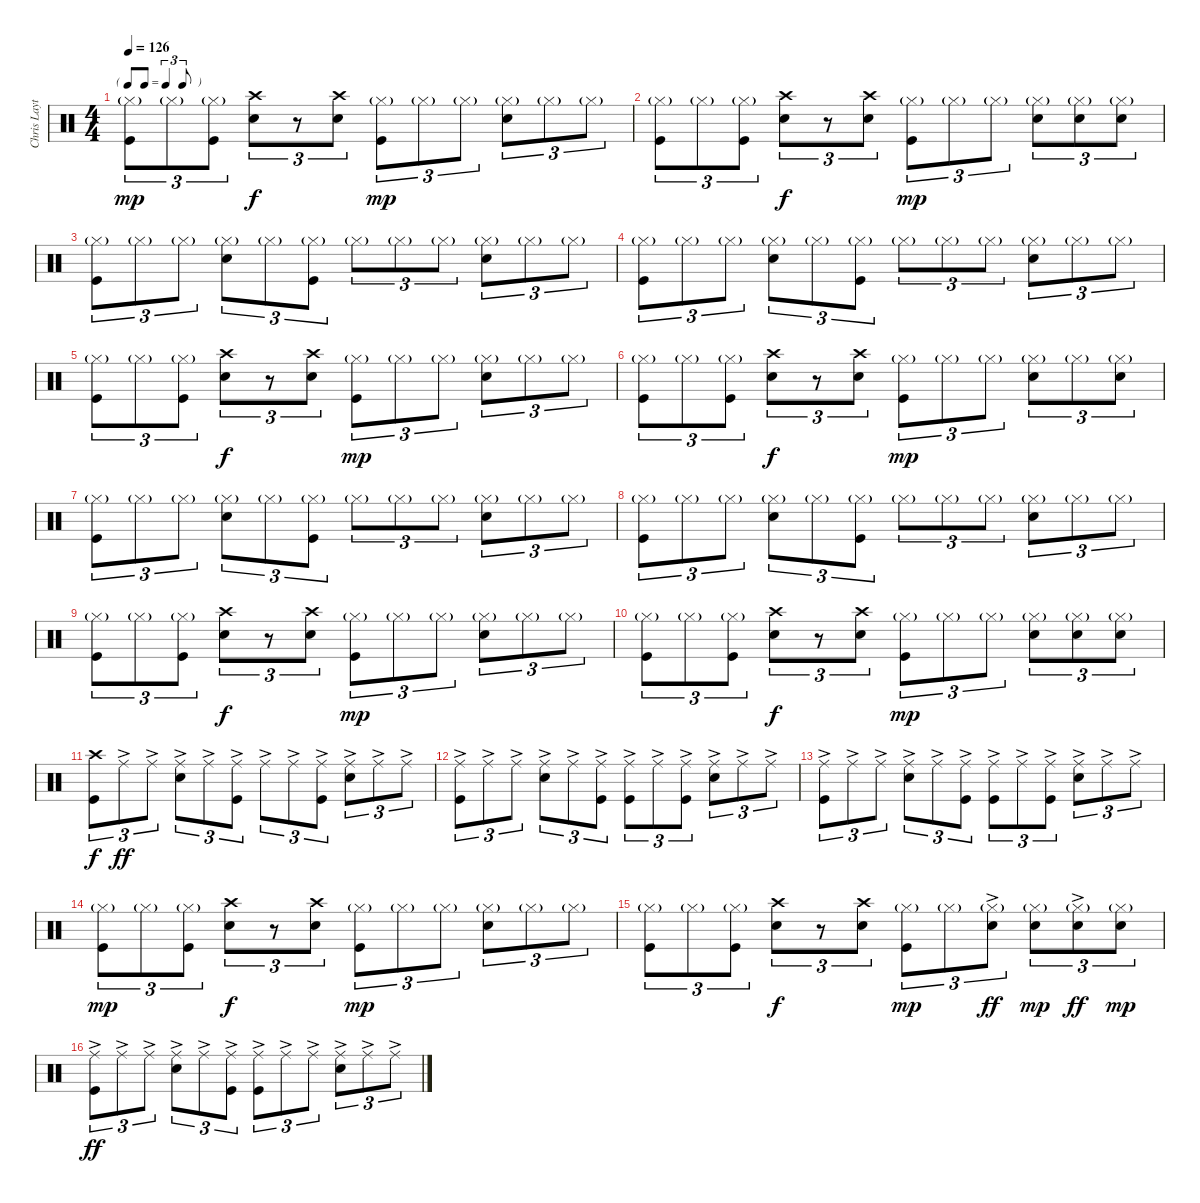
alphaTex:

\track ("Chris Layton" "Chris Layt") {instrument percussion}
\staff {score}
\articulation defaults
\ts (4 4)
\tf triplet8th
\tempo 126
\clef neutral
\ks c
("Hi-Hat (closed)"{g} "Kick (hit)").8{tu (3 2) dy mp} "Hi-Hat (closed)"{g}.8{tu (3 2)} ("Hi-Hat (closed)"{g} "Kick (hit)").8{tu (3 2)} ("Crash high (hit)" "Electric Snare (hit)").8{tu (3 2) dy f} r.8{tu (3 2)} ("Crash high (hit)" "Electric Snare (hit)").8{tu (3 2)} ("Hi-Hat (closed)"{g} "Kick (hit)").8{tu (3 2) dy mp} "Hi-Hat (closed)"{g}.8{tu (3 2)} "Hi-Hat (closed)"{g}.8{tu (3 2)} ("Hi-Hat (closed)"{g} "Electric Snare (hit)").8{tu (3 2)} "Hi-Hat (closed)"{g}.8{tu (3 2)} "Hi-Hat (closed)"{g}.8{tu (3 2)} |
("Hi-Hat (closed)"{g} "Kick (hit)").8{tu (3 2)} "Hi-Hat (closed)"{g}.8{tu (3 2)} ("Hi-Hat (closed)"{g} "Kick (hit)").8{tu (3 2)} ("Crash high (hit)" "Electric Snare (hit)").8{tu (3 2) dy f} r.8{tu (3 2)} ("Crash high (hit)" "Electric Snare (hit)").8{tu (3 2)} ("Hi-Hat (closed)"{g} "Kick (hit)").8{tu (3 2) dy mp} "Hi-Hat (closed)"{g}.8{tu (3 2)} "Hi-Hat (closed)"{g}.8{tu (3 2)} ("Hi-Hat (closed)"{g} "Electric Snare (hit)").8{tu (3 2)} ("Hi-Hat (closed)"{g} "Electric Snare (hit)").8{tu (3 2)} ("Hi-Hat (closed)"{g} "Electric Snare (hit)").8{tu (3 2)} |
("Hi-Hat (closed)"{g} "Kick (hit)").8{tu (3 2)} "Hi-Hat (closed)"{g}.8{tu (3 2)} "Hi-Hat (closed)"{g}.8{tu (3 2)} ("Hi-Hat (closed)"{g} "Electric Snare (hit)").8{tu (3 2)} "Hi-Hat (closed)"{g}.8{tu (3 2)} ("Hi-Hat (closed)"{g} "Kick (hit)").8{tu (3 2)} "Hi-Hat (closed)"{g}.8{tu (3 2)} "Hi-Hat (closed)"{g}.8{tu (3 2)} "Hi-Hat (closed)"{g}.8{tu (3 2)} ("Hi-Hat (closed)"{g} "Electric Snare (hit)").8{tu (3 2)} "Hi-Hat (closed)"{g}.8{tu (3 2)} "Hi-Hat (closed)"{g}.8{tu (3 2)} |
("Hi-Hat (closed)"{g} "Kick (hit)").8{tu (3 2)} "Hi-Hat (closed)"{g}.8{tu (3 2)} "Hi-Hat (closed)"{g}.8{tu (3 2)} ("Hi-Hat (closed)"{g} "Electric Snare (hit)").8{tu (3 2)} "Hi-Hat (closed)"{g}.8{tu (3 2)} ("Hi-Hat (closed)"{g} "Kick (hit)").8{tu (3 2)} "Hi-Hat (closed)"{g}.8{tu (3 2)} "Hi-Hat (closed)"{g}.8{tu (3 2)} "Hi-Hat (closed)"{g}.8{tu (3 2)} ("Hi-Hat (closed)"{g} "Electric Snare (hit)").8{tu (3 2)} "Hi-Hat (closed)"{g}.8{tu (3 2)} "Hi-Hat (closed)"{g}.8{tu (3 2)} |
("Hi-Hat (closed)"{g} "Kick (hit)").8{tu (3 2)} "Hi-Hat (closed)"{g}.8{tu (3 2)} ("Hi-Hat (closed)"{g} "Kick (hit)").8{tu (3 2)} ("Crash high (hit)" "Electric Snare (hit)").8{tu (3 2) dy f} r.8{tu (3 2)} ("Crash high (hit)" "Electric Snare (hit)").8{tu (3 2)} ("Hi-Hat (closed)"{g} "Kick (hit)").8{tu (3 2) dy mp} "Hi-Hat (closed)"{g}.8{tu (3 2)} "Hi-Hat (closed)"{g}.8{tu (3 2)} ("Hi-Hat (closed)"{g} "Electric Snare (hit)").8{tu (3 2)} "Hi-Hat (closed)"{g}.8{tu (3 2)} "Hi-Hat (closed)"{g}.8{tu (3 2)} |
("Hi-Hat (closed)"{g} "Kick (hit)").8{tu (3 2)} "Hi-Hat (closed)"{g}.8{tu (3 2)} ("Hi-Hat (closed)"{g} "Kick (hit)").8{tu (3 2)} ("Crash high (hit)" "Electric Snare (hit)").8{tu (3 2) dy f} r.8{tu (3 2)} ("Crash high (hit)" "Electric Snare (hit)").8{tu (3 2)} ("Hi-Hat (closed)"{g} "Kick (hit)").8{tu (3 2) dy mp} "Hi-Hat (closed)"{g}.8{tu (3 2)} "Hi-Hat (closed)"{g}.8{tu (3 2)} ("Hi-Hat (closed)"{g} "Electric Snare (hit)").8{tu (3 2)} "Hi-Hat (closed)"{g}.8{tu (3 2)} ("Hi-Hat (closed)"{g} "Electric Snare (hit)").8{tu (3 2)} |
("Hi-Hat (closed)"{g} "Kick (hit)").8{tu (3 2)} "Hi-Hat (closed)"{g}.8{tu (3 2)} "Hi-Hat (closed)"{g}.8{tu (3 2)} ("Hi-Hat (closed)"{g} "Electric Snare (hit)").8{tu (3 2)} "Hi-Hat (closed)"{g}.8{tu (3 2)} ("Hi-Hat (closed)"{g} "Kick (hit)").8{tu (3 2)} "Hi-Hat (closed)"{g}.8{tu (3 2)} "Hi-Hat (closed)"{g}.8{tu (3 2)} "Hi-Hat (closed)"{g}.8{tu (3 2)} ("Hi-Hat (closed)"{g} "Electric Snare (hit)").8{tu (3 2)} "Hi-Hat (closed)"{g}.8{tu (3 2)} "Hi-Hat (closed)"{g}.8{tu (3 2)} |
("Hi-Hat (closed)"{g} "Kick (hit)").8{tu (3 2)} "Hi-Hat (closed)"{g}.8{tu (3 2)} "Hi-Hat (closed)"{g}.8{tu (3 2)} ("Hi-Hat (closed)"{g} "Electric Snare (hit)").8{tu (3 2)} "Hi-Hat (closed)"{g}.8{tu (3 2)} ("Hi-Hat (closed)"{g} "Kick (hit)").8{tu (3 2)} "Hi-Hat (closed)"{g}.8{tu (3 2)} "Hi-Hat (closed)"{g}.8{tu (3 2)} "Hi-Hat (closed)"{g}.8{tu (3 2)} ("Hi-Hat (closed)"{g} "Electric Snare (hit)").8{tu (3 2)} "Hi-Hat (closed)"{g}.8{tu (3 2)} "Hi-Hat (closed)"{g}.8{tu (3 2)} |
("Hi-Hat (closed)"{g} "Kick (hit)").8{tu (3 2)} "Hi-Hat (closed)"{g}.8{tu (3 2)} ("Hi-Hat (closed)"{g} "Kick (hit)").8{tu (3 2)} ("Crash high (hit)" "Electric Snare (hit)").8{tu (3 2) dy f} r.8{tu (3 2)} ("Crash high (hit)" "Electric Snare (hit)").8{tu (3 2)} ("Hi-Hat (closed)"{g} "Kick (hit)").8{tu (3 2) dy mp} "Hi-Hat (closed)"{g}.8{tu (3 2)} "Hi-Hat (closed)"{g}.8{tu (3 2)} ("Hi-Hat (closed)"{g} "Electric Snare (hit)").8{tu (3 2)} "Hi-Hat (closed)"{g}.8{tu (3 2)} "Hi-Hat (closed)"{g}.8{tu (3 2)} |
("Hi-Hat (closed)"{g} "Kick (hit)").8{tu (3 2)} "Hi-Hat (closed)"{g}.8{tu (3 2)} ("Hi-Hat (closed)"{g} "Kick (hit)").8{tu (3 2)} ("Crash high (hit)" "Electric Snare (hit)").8{tu (3 2) dy f} r.8{tu (3 2)} ("Crash high (hit)" "Electric Snare (hit)").8{tu (3 2)} ("Hi-Hat (closed)"{g} "Kick (hit)").8{tu (3 2) dy mp} "Hi-Hat (closed)"{g}.8{tu (3 2)} "Hi-Hat (closed)"{g}.8{tu (3 2)} ("Hi-Hat (closed)"{g} "Electric Snare (hit)").8{tu (3 2)} ("Hi-Hat (closed)"{g} "Electric Snare (hit)").8{tu (3 2)} ("Hi-Hat (closed)"{g} "Electric Snare (hit)").8{tu (3 2)} |
("Crash high (hit)" "Kick (hit)").8{tu (3 2) dy f} "Ride (middle)"{ac}.8{tu (3 2) dy ff} "Ride (middle)"{ac}.8{tu (3 2)} ("Ride (middle)"{ac} "Electric Snare (hit)").8{tu (3 2)} "Ride (middle)"{ac}.8{tu (3 2)} ("Ride (middle)"{ac} "Kick (hit)").8{tu (3 2)} "Ride (middle)"{ac}.8{tu (3 2)} "Ride (middle)"{ac}.8{tu (3 2)} ("Ride (middle)"{ac} "Kick (hit)").8{tu (3 2)} ("Ride (middle)"{ac} "Electric Snare (hit)").8{tu (3 2)} "Ride (middle)"{ac}.8{tu (3 2)} "Ride (middle)"{ac}.8{tu (3 2)} |
("Ride (middle)"{ac} "Kick (hit)").8{tu (3 2)} "Ride (middle)"{ac}.8{tu (3 2)} "Ride (middle)"{ac}.8{tu (3 2)} ("Ride (middle)"{ac} "Electric Snare (hit)").8{tu (3 2)} "Ride (middle)"{ac}.8{tu (3 2)} ("Ride (middle)"{ac} "Kick (hit)").8{tu (3 2)} ("Ride (middle)"{ac} "Kick (hit)").8{tu (3 2)} "Ride (middle)"{ac}.8{tu (3 2)} ("Ride (middle)"{ac} "Kick (hit)").8{tu (3 2)} ("Ride (middle)"{ac} "Electric Snare (hit)").8{tu (3 2)} "Ride (middle)"{ac}.8{tu (3 2)} "Ride (middle)"{ac}.8{tu (3 2)} |
("Ride (middle)"{ac} "Kick (hit)").8{tu (3 2)} "Ride (middle)"{ac}.8{tu (3 2)} "Ride (middle)"{ac}.8{tu (3 2)} ("Ride (middle)"{ac} "Electric Snare (hit)").8{tu (3 2)} "Ride (middle)"{ac}.8{tu (3 2)} ("Ride (middle)"{ac} "Kick (hit)").8{tu (3 2)} ("Ride (middle)"{ac} "Kick (hit)").8{tu (3 2)} "Ride (middle)"{ac}.8{tu (3 2)} ("Ride (middle)"{ac} "Kick (hit)").8{tu (3 2)} ("Ride (middle)"{ac} "Electric Snare (hit)").8{tu (3 2)} "Ride (middle)"{ac}.8{tu (3 2)} "Ride (middle)"{ac}.8{tu (3 2)} |
("Hi-Hat (closed)"{g} "Kick (hit)").8{tu (3 2) dy mp} "Hi-Hat (closed)"{g}.8{tu (3 2)} ("Hi-Hat (closed)"{g} "Kick (hit)").8{tu (3 2)} ("Crash high (hit)" "Electric Snare (hit)").8{tu (3 2) dy f} r.8{tu (3 2)} ("Crash high (hit)" "Electric Snare (hit)").8{tu (3 2)} ("Hi-Hat (closed)"{g} "Kick (hit)").8{tu (3 2) dy mp} "Hi-Hat (closed)"{g}.8{tu (3 2)} "Hi-Hat (closed)"{g}.8{tu (3 2)} ("Hi-Hat (closed)"{g} "Electric Snare (hit)").8{tu (3 2)} "Hi-Hat (closed)"{g}.8{tu (3 2)} "Hi-Hat (closed)"{g}.8{tu (3 2)} |
("Hi-Hat (closed)"{g} "Kick (hit)").8{tu (3 2)} "Hi-Hat (closed)"{g}.8{tu (3 2)} ("Hi-Hat (closed)"{g} "Kick (hit)").8{tu (3 2)} ("Crash high (hit)" "Electric Snare (hit)").8{tu (3 2) dy f} r.8{tu (3 2)} ("Crash high (hit)" "Electric Snare (hit)").8{tu (3 2)} ("Hi-Hat (closed)"{g} "Kick (hit)").8{tu (3 2) dy mp} "Hi-Hat (closed)"{g}.8{tu (3 2)} ("Hi-Hat (closed)"{g} "Electric Snare (hit)"{ac}).8{tu (3 2) dy ff} ("Hi-Hat (closed)"{g} "Electric Snare (hit)").8{tu (3 2) dy mp} ("Hi-Hat (closed)"{g} "Electric Snare (hit)"{ac}).8{tu (3 2) dy ff} ("Hi-Hat (closed)"{g} "Electric Snare (hit)").8{tu (3 2) dy mp} |
("Ride (middle)"{ac} "Kick (hit)").8{tu (3 2) dy ff} "Ride (middle)"{ac}.8{tu (3 2)} "Ride (middle)"{ac}.8{tu (3 2)} ("Ride (middle)"{ac} "Electric Snare (hit)").8{tu (3 2)} "Ride (middle)"{ac}.8{tu (3 2)} ("Ride (middle)"{ac} "Kick (hit)").8{tu (3 2)} ("Ride (middle)"{ac} "Kick (hit)").8{tu (3 2)} "Ride (middle)"{ac}.8{tu (3 2)} "Ride (middle)"{ac}.8{tu (3 2)} ("Ride (middle)"{ac} "Electric Snare (hit)").8{tu (3 2)} "Ride (middle)"{ac}.8{tu (3 2)} "Ride (middle)"{ac}.8{tu (3 2)}
